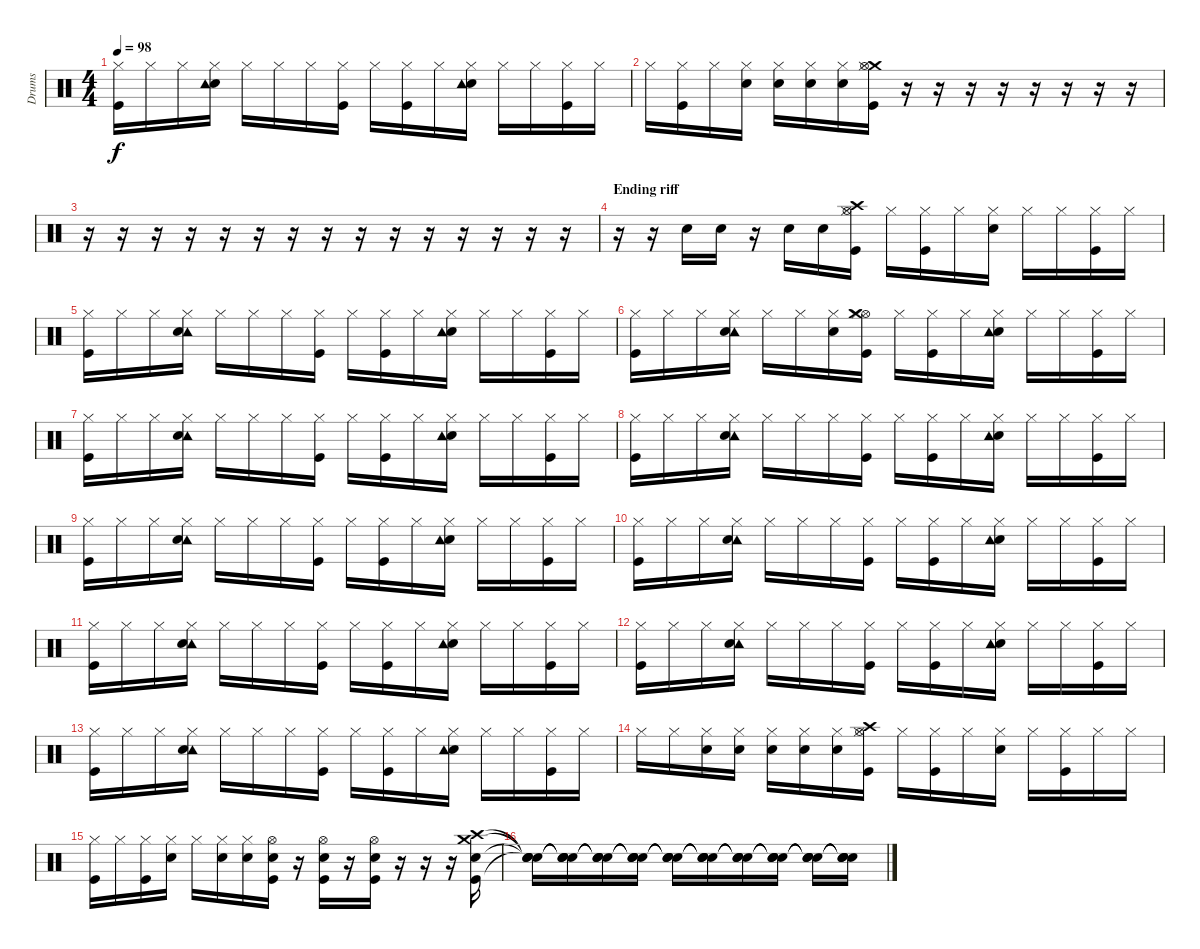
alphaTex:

\track ("Drums" "Drums") {instrument percussion}
\staff {score}
\articulation defaults
\ts (4 4)
\tempo 98
\clef neutral
\ks c
("Kick (hit)" "Hi-Hat (closed)").16{dy f} "Hi-Hat (closed)".16 "Hi-Hat (closed)".16 ("Electric Snare (hit)" "Tambourine (hit)" "Hi-Hat (closed)").16 "Hi-Hat (closed)".16 "Hi-Hat (closed)".16 "Hi-Hat (closed)".16 ("Kick (hit)" "Hi-Hat (closed)").16 "Hi-Hat (closed)".16 ("Kick (hit)" "Hi-Hat (closed)").16 "Hi-Hat (closed)".16 ("Electric Snare (hit)" "Tambourine (hit)" "Hi-Hat (closed)").16 "Hi-Hat (closed)".16 "Hi-Hat (closed)".16 ("Kick (hit)" "Hi-Hat (closed)").16 "Hi-Hat (closed)".16 |
"Hi-Hat (closed)".16 ("Kick (hit)" "Hi-Hat (closed)").16 "Hi-Hat (closed)".16 ("Electric Snare (hit)" "Hi-Hat (closed)").16 ("Electric Snare (hit)" "Hi-Hat (closed)").16 ("Electric Snare (hit)" "Hi-Hat (closed)").16 ("Electric Snare (hit)" "Hi-Hat (closed)").16 ("Kick (hit)" "Crash medium (hit)" "Hi-Hat (open)" "Hi-Hat (closed)").16 r.16 r.16 r.16 r.16 r.16 r.16 r.16 r.16 |
r.16 r.16 r.16 r.16 r.16 r.16 r.16 r.16 r.16 r.16 r.16 r.16 r.16 r.16 r.16 |
\section ("" "Ending riff")
r.16 r.16 "Electric Snare (hit)".16 "Electric Snare (hit)".16 r.16 "Electric Snare (hit)".16 "Electric Snare (hit)".16 ("Kick (hit)" "Crash high (hit)" "Hi-Hat (open)" "Hi-Hat (closed)").16 "Hi-Hat (closed)".16 ("Kick (hit)" "Hi-Hat (closed)").16 "Hi-Hat (closed)".16 ("Electric Snare (hit)" "Hi-Hat (closed)").16 "Hi-Hat (closed)".16 "Hi-Hat (closed)".16 ("Kick (hit)" "Hi-Hat (closed)").16 "Hi-Hat (closed)".16 |
("Kick (hit)" "Hi-Hat (closed)").16 "Hi-Hat (closed)".16 "Hi-Hat (closed)".16 ("Tambourine (hit)" "Electric Snare (hit)" "Hi-Hat (closed)").16 "Hi-Hat (closed)".16 "Hi-Hat (closed)".16 "Hi-Hat (closed)".16 ("Kick (hit)" "Hi-Hat (closed)").16 "Hi-Hat (closed)".16 ("Kick (hit)" "Hi-Hat (closed)").16 "Hi-Hat (closed)".16 ("Electric Snare (hit)" "Tambourine (hit)" "Hi-Hat (closed)").16 "Hi-Hat (closed)".16 "Hi-Hat (closed)".16 ("Kick (hit)" "Hi-Hat (closed)").16 "Hi-Hat (closed)".16 |
("Kick (hit)" "Hi-Hat (closed)").16 "Hi-Hat (closed)".16 "Hi-Hat (closed)".16 ("Tambourine (hit)" "Electric Snare (hit)" "Hi-Hat (closed)").16 "Hi-Hat (closed)".16 "Hi-Hat (closed)".16 ("Electric Snare (hit)" "Hi-Hat (closed)").16 ("Kick (hit)" "Hi-Hat (open)" "Crash medium (hit)" "Hi-Hat (closed)").16 "Hi-Hat (closed)".16 ("Kick (hit)" "Hi-Hat (closed)").16 "Hi-Hat (closed)".16 ("Electric Snare (hit)" "Tambourine (hit)" "Hi-Hat (closed)").16 "Hi-Hat (closed)".16 "Hi-Hat (closed)".16 ("Kick (hit)" "Hi-Hat (closed)").16 "Hi-Hat (closed)".16 |
("Kick (hit)" "Hi-Hat (closed)").16 "Hi-Hat (closed)".16 "Hi-Hat (closed)".16 ("Tambourine (hit)" "Electric Snare (hit)" "Hi-Hat (closed)").16 "Hi-Hat (closed)".16 "Hi-Hat (closed)".16 "Hi-Hat (closed)".16 ("Kick (hit)" "Hi-Hat (closed)").16 "Hi-Hat (closed)".16 ("Kick (hit)" "Hi-Hat (closed)").16 "Hi-Hat (closed)".16 ("Electric Snare (hit)" "Tambourine (hit)" "Hi-Hat (closed)").16 "Hi-Hat (closed)".16 "Hi-Hat (closed)".16 ("Kick (hit)" "Hi-Hat (closed)").16 "Hi-Hat (closed)".16 |
("Kick (hit)" "Hi-Hat (closed)").16 "Hi-Hat (closed)".16 "Hi-Hat (closed)".16 ("Tambourine (hit)" "Electric Snare (hit)" "Hi-Hat (closed)").16 "Hi-Hat (closed)".16 "Hi-Hat (closed)".16 "Hi-Hat (closed)".16 ("Kick (hit)" "Hi-Hat (closed)").16 "Hi-Hat (closed)".16 ("Kick (hit)" "Hi-Hat (closed)").16 "Hi-Hat (closed)".16 ("Electric Snare (hit)" "Tambourine (hit)" "Hi-Hat (closed)").16 "Hi-Hat (closed)".16 "Hi-Hat (closed)".16 ("Kick (hit)" "Hi-Hat (closed)").16 "Hi-Hat (closed)".16 |
("Kick (hit)" "Hi-Hat (closed)").16 "Hi-Hat (closed)".16 "Hi-Hat (closed)".16 ("Tambourine (hit)" "Electric Snare (hit)" "Hi-Hat (closed)").16 "Hi-Hat (closed)".16 "Hi-Hat (closed)".16 "Hi-Hat (closed)".16 ("Kick (hit)" "Hi-Hat (closed)").16 "Hi-Hat (closed)".16 ("Kick (hit)" "Hi-Hat (closed)").16 "Hi-Hat (closed)".16 ("Electric Snare (hit)" "Tambourine (hit)" "Hi-Hat (closed)").16 "Hi-Hat (closed)".16 "Hi-Hat (closed)".16 ("Kick (hit)" "Hi-Hat (closed)").16 "Hi-Hat (closed)".16 |
("Kick (hit)" "Hi-Hat (closed)").16 "Hi-Hat (closed)".16 "Hi-Hat (closed)".16 ("Tambourine (hit)" "Electric Snare (hit)" "Hi-Hat (closed)").16 "Hi-Hat (closed)".16 "Hi-Hat (closed)".16 "Hi-Hat (closed)".16 ("Kick (hit)" "Hi-Hat (closed)").16 "Hi-Hat (closed)".16 ("Kick (hit)" "Hi-Hat (closed)").16 "Hi-Hat (closed)".16 ("Electric Snare (hit)" "Tambourine (hit)" "Hi-Hat (closed)").16 "Hi-Hat (closed)".16 "Hi-Hat (closed)".16 ("Kick (hit)" "Hi-Hat (closed)").16 "Hi-Hat (closed)".16 |
("Kick (hit)" "Hi-Hat (closed)").16 "Hi-Hat (closed)".16 "Hi-Hat (closed)".16 ("Tambourine (hit)" "Electric Snare (hit)" "Hi-Hat (closed)").16 "Hi-Hat (closed)".16 "Hi-Hat (closed)".16 "Hi-Hat (closed)".16 ("Kick (hit)" "Hi-Hat (closed)").16 "Hi-Hat (closed)".16 ("Kick (hit)" "Hi-Hat (closed)").16 "Hi-Hat (closed)".16 ("Electric Snare (hit)" "Tambourine (hit)" "Hi-Hat (closed)").16 "Hi-Hat (closed)".16 "Hi-Hat (closed)".16 ("Kick (hit)" "Hi-Hat (closed)").16 "Hi-Hat (closed)".16 |
("Kick (hit)" "Hi-Hat (closed)").16 "Hi-Hat (closed)".16 "Hi-Hat (closed)".16 ("Tambourine (hit)" "Electric Snare (hit)" "Hi-Hat (closed)").16 "Hi-Hat (closed)".16 "Hi-Hat (closed)".16 "Hi-Hat (closed)".16 ("Kick (hit)" "Hi-Hat (closed)").16 "Hi-Hat (closed)".16 ("Kick (hit)" "Hi-Hat (closed)").16 "Hi-Hat (closed)".16 ("Electric Snare (hit)" "Tambourine (hit)" "Hi-Hat (closed)").16 "Hi-Hat (closed)".16 "Hi-Hat (closed)".16 ("Kick (hit)" "Hi-Hat (closed)").16 "Hi-Hat (closed)".16 |
("Kick (hit)" "Hi-Hat (closed)").16 "Hi-Hat (closed)".16 "Hi-Hat (closed)".16 ("Tambourine (hit)" "Electric Snare (hit)" "Hi-Hat (closed)").16 "Hi-Hat (closed)".16 "Hi-Hat (closed)".16 "Hi-Hat (closed)".16 ("Kick (hit)" "Hi-Hat (closed)").16 "Hi-Hat (closed)".16 ("Kick (hit)" "Hi-Hat (closed)").16 "Hi-Hat (closed)".16 ("Electric Snare (hit)" "Tambourine (hit)" "Hi-Hat (closed)").16 "Hi-Hat (closed)".16 "Hi-Hat (closed)".16 ("Kick (hit)" "Hi-Hat (closed)").16 "Hi-Hat (closed)".16 |
"Hi-Hat (closed)".16 "Hi-Hat (closed)".16 ("Electric Snare (hit)" "Hi-Hat (closed)").16 ("Electric Snare (hit)" "Hi-Hat (closed)").16 ("Electric Snare (hit)" "Hi-Hat (closed)").16 ("Electric Snare (hit)" "Hi-Hat (closed)").16 ("Electric Snare (hit)" "Hi-Hat (closed)").16 ("Kick (hit)" "Hi-Hat (open)" "Crash high (hit)" "Hi-Hat (closed)").16 "Hi-Hat (closed)".16 ("Kick (hit)" "Hi-Hat (closed)").16 "Hi-Hat (closed)".16 ("Electric Snare (hit)" "Hi-Hat (closed)").16 "Hi-Hat (closed)".16 ("Kick (hit)" "Hi-Hat (closed)").16 "Hi-Hat (closed)".16 "Hi-Hat (closed)".16 |
("Kick (hit)" "Hi-Hat (closed)").16 "Hi-Hat (closed)".16 ("Kick (hit)" "Hi-Hat (closed)").16 ("Electric Snare (hit)" "Hi-Hat (closed)").16 "Hi-Hat (closed)".16 ("Electric Snare (hit)" "Hi-Hat (closed)").16 ("Electric Snare (hit)" "Hi-Hat (closed)").16 ("Kick (hit)" "Electric Snare (hit)" "Hi-Hat (open)").16 r.16 ("Kick (hit)" "Electric Snare (hit)" "Hi-Hat (open)").16 r.16 ("Kick (hit)" "Electric Snare (hit)" "Hi-Hat (open)").16 r.16 r.16 r.16 ("Kick (hit)" "Crash high (hit)" "Electric Snare (hit)" "Crash medium (hit)").16 |
("Snare (hit)"{t} "Snare (hit)"{t} "Snare (hit)"{t} "Snare (hit)"{t}).16 ("Snare (hit)"{t} "Snare (hit)"{t} "Snare (hit)"{t} "Snare (hit)"{t}).16 ("Snare (hit)"{t} "Snare (hit)"{t} "Snare (hit)"{t} "Snare (hit)"{t}).16 ("Snare (hit)"{t} "Snare (hit)"{t} "Snare (hit)"{t} "Snare (hit)"{t}).16 ("Snare (hit)"{t} "Snare (hit)"{t} "Snare (hit)"{t} "Snare (hit)"{t}).16 ("Snare (hit)"{t} "Snare (hit)"{t} "Snare (hit)"{t} "Snare (hit)"{t}).16 ("Snare (hit)"{t} "Snare (hit)"{t} "Snare (hit)"{t} "Snare (hit)"{t}).16 ("Snare (hit)"{t} "Snare (hit)"{t} "Snare (hit)"{t} "Snare (hit)"{t}).16 ("Snare (hit)"{t} "Snare (hit)"{t} "Snare (hit)"{t} "Snare (hit)"{t}).16 ("Snare (hit)"{t} "Snare (hit)"{t} "Snare (hit)"{t} "Snare (hit)"{t}).16
